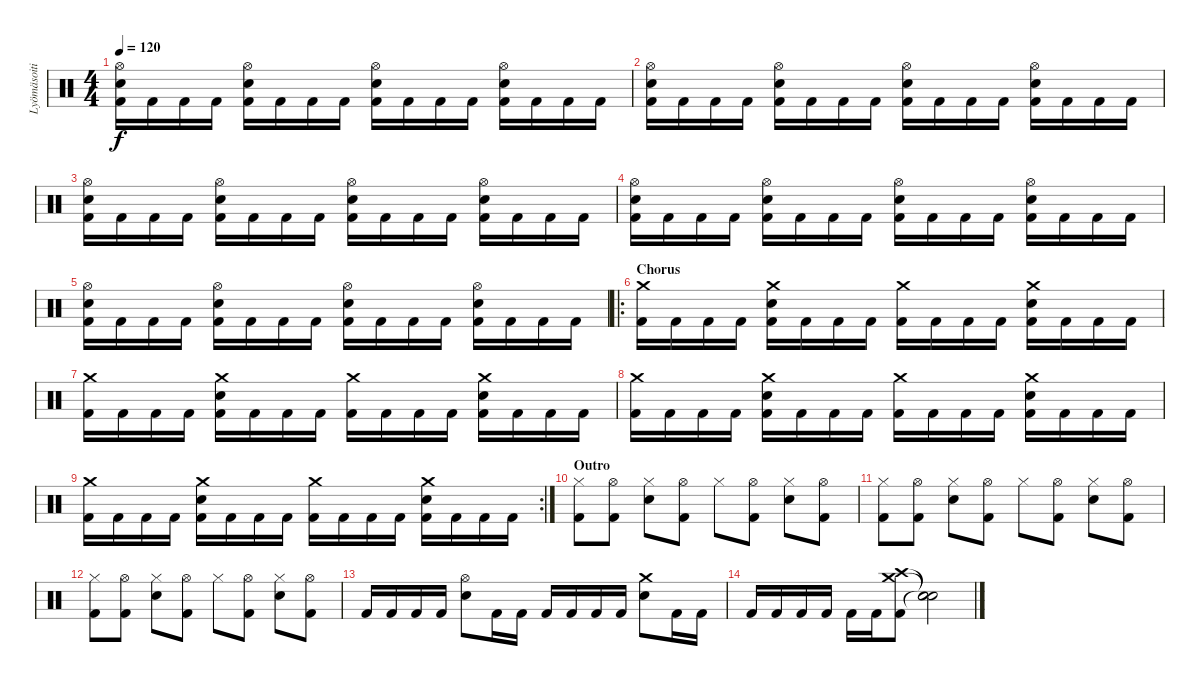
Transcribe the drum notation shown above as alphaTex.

\track ("Lyömäsoitin" "Lyömäsoiti") {instrument percussion}
\staff {score}
\articulation defaults
\ts (4 4)
\tempo 120
\clef neutral
\ks c
("Hi-Hat (open)" "Electric Snare (hit)" "Kick (hit) 2").16{dy f} "Kick (hit) 2".16 "Kick (hit) 2".16 "Kick (hit) 2".16 ("Hi-Hat (open)" "Electric Snare (hit)" "Kick (hit) 2").16 "Kick (hit) 2".16 "Kick (hit) 2".16 "Kick (hit) 2".16 ("Hi-Hat (open)" "Electric Snare (hit)" "Kick (hit) 2").16 "Kick (hit) 2".16 "Kick (hit) 2".16 "Kick (hit) 2".16 ("Hi-Hat (open)" "Electric Snare (hit)" "Kick (hit) 2").16 "Kick (hit) 2".16 "Kick (hit) 2".16 "Kick (hit) 2".16 |
("Hi-Hat (open)" "Electric Snare (hit)" "Kick (hit) 2").16 "Kick (hit) 2".16 "Kick (hit) 2".16 "Kick (hit) 2".16 ("Hi-Hat (open)" "Electric Snare (hit)" "Kick (hit) 2").16 "Kick (hit) 2".16 "Kick (hit) 2".16 "Kick (hit) 2".16 ("Hi-Hat (open)" "Electric Snare (hit)" "Kick (hit) 2").16 "Kick (hit) 2".16 "Kick (hit) 2".16 "Kick (hit) 2".16 ("Hi-Hat (open)" "Electric Snare (hit)" "Kick (hit) 2").16 "Kick (hit) 2".16 "Kick (hit) 2".16 "Kick (hit) 2".16 |
("Hi-Hat (open)" "Electric Snare (hit)" "Kick (hit) 2").16 "Kick (hit) 2".16 "Kick (hit) 2".16 "Kick (hit) 2".16 ("Hi-Hat (open)" "Electric Snare (hit)" "Kick (hit) 2").16 "Kick (hit) 2".16 "Kick (hit) 2".16 "Kick (hit) 2".16 ("Hi-Hat (open)" "Electric Snare (hit)" "Kick (hit) 2").16 "Kick (hit) 2".16 "Kick (hit) 2".16 "Kick (hit) 2".16 ("Hi-Hat (open)" "Electric Snare (hit)" "Kick (hit) 2").16 "Kick (hit) 2".16 "Kick (hit) 2".16 "Kick (hit) 2".16 |
("Hi-Hat (open)" "Electric Snare (hit)" "Kick (hit) 2").16 "Kick (hit) 2".16 "Kick (hit) 2".16 "Kick (hit) 2".16 ("Hi-Hat (open)" "Electric Snare (hit)" "Kick (hit) 2").16 "Kick (hit) 2".16 "Kick (hit) 2".16 "Kick (hit) 2".16 ("Hi-Hat (open)" "Electric Snare (hit)" "Kick (hit) 2").16 "Kick (hit) 2".16 "Kick (hit) 2".16 "Kick (hit) 2".16 ("Hi-Hat (open)" "Electric Snare (hit)" "Kick (hit) 2").16 "Kick (hit) 2".16 "Kick (hit) 2".16 "Kick (hit) 2".16 |
("Hi-Hat (open)" "Electric Snare (hit)" "Kick (hit) 2").16 "Kick (hit) 2".16 "Kick (hit) 2".16 "Kick (hit) 2".16 ("Hi-Hat (open)" "Electric Snare (hit)" "Kick (hit) 2").16 "Kick (hit) 2".16 "Kick (hit) 2".16 "Kick (hit) 2".16 ("Hi-Hat (open)" "Electric Snare (hit)" "Kick (hit) 2").16 "Kick (hit) 2".16 "Kick (hit) 2".16 "Kick (hit) 2".16 ("Hi-Hat (open)" "Electric Snare (hit)" "Kick (hit) 2").16 "Kick (hit) 2".16 "Kick (hit) 2".16 "Kick (hit) 2".16 |
\ro
\section ("" "Chorus")
("Crash medium (hit)" "Kick (hit) 2").16 "Kick (hit) 2".16 "Kick (hit) 2".16 "Kick (hit) 2".16 ("Crash medium (hit)" "Electric Snare (hit)" "Kick (hit) 2").16 "Kick (hit) 2".16 "Kick (hit) 2".16 "Kick (hit) 2".16 ("Crash medium (hit)" "Kick (hit) 2").16 "Kick (hit) 2".16 "Kick (hit) 2".16 "Kick (hit) 2".16 ("Crash medium (hit)" "Electric Snare (hit)" "Kick (hit) 2").16 "Kick (hit) 2".16 "Kick (hit) 2".16 "Kick (hit) 2".16 |
("Crash medium (hit)" "Kick (hit) 2").16 "Kick (hit) 2".16 "Kick (hit) 2".16 "Kick (hit) 2".16 ("Crash medium (hit)" "Electric Snare (hit)" "Kick (hit) 2").16 "Kick (hit) 2".16 "Kick (hit) 2".16 "Kick (hit) 2".16 ("Crash medium (hit)" "Kick (hit) 2").16 "Kick (hit) 2".16 "Kick (hit) 2".16 "Kick (hit) 2".16 ("Crash medium (hit)" "Electric Snare (hit)" "Kick (hit) 2").16 "Kick (hit) 2".16 "Kick (hit) 2".16 "Kick (hit) 2".16 |
("Crash medium (hit)" "Kick (hit) 2").16 "Kick (hit) 2".16 "Kick (hit) 2".16 "Kick (hit) 2".16 ("Crash medium (hit)" "Electric Snare (hit)" "Kick (hit) 2").16 "Kick (hit) 2".16 "Kick (hit) 2".16 "Kick (hit) 2".16 ("Crash medium (hit)" "Kick (hit) 2").16 "Kick (hit) 2".16 "Kick (hit) 2".16 "Kick (hit) 2".16 ("Crash medium (hit)" "Electric Snare (hit)" "Kick (hit) 2").16 "Kick (hit) 2".16 "Kick (hit) 2".16 "Kick (hit) 2".16 |
\rc 2
("Crash medium (hit)" "Kick (hit) 2").16 "Kick (hit) 2".16 "Kick (hit) 2".16 "Kick (hit) 2".16 ("Crash medium (hit)" "Electric Snare (hit)" "Kick (hit) 2").16 "Kick (hit) 2".16 "Kick (hit) 2".16 "Kick (hit) 2".16 ("Crash medium (hit)" "Kick (hit) 2").16 "Kick (hit) 2".16 "Kick (hit) 2".16 "Kick (hit) 2".16 ("Crash medium (hit)" "Electric Snare (hit)" "Kick (hit) 2").16 "Kick (hit) 2".16 "Kick (hit) 2".16 "Kick (hit) 2".16 |
\section ("" "Outro")
("Hi-Hat (closed)" "Kick (hit) 2").8 ("Hi-Hat (open)" "Kick (hit) 2").8 ("Hi-Hat (closed)" "Electric Snare (hit)").8 ("Hi-Hat (open)" "Kick (hit) 2").8 "Hi-Hat (closed)".8 ("Hi-Hat (open)" "Kick (hit) 2").8 ("Hi-Hat (closed)" "Electric Snare (hit)").8 ("Hi-Hat (open)" "Kick (hit) 2").8 |
("Hi-Hat (closed)" "Kick (hit) 2").8 ("Hi-Hat (open)" "Kick (hit) 2").8 ("Hi-Hat (closed)" "Electric Snare (hit)").8 ("Hi-Hat (open)" "Kick (hit) 2").8 "Hi-Hat (closed)".8 ("Hi-Hat (open)" "Kick (hit) 2").8 ("Hi-Hat (closed)" "Electric Snare (hit)").8 ("Hi-Hat (open)" "Kick (hit) 2").8 |
("Hi-Hat (closed)" "Kick (hit) 2").8 ("Hi-Hat (open)" "Kick (hit) 2").8 ("Hi-Hat (closed)" "Electric Snare (hit)").8 ("Hi-Hat (open)" "Kick (hit) 2").8 "Hi-Hat (closed)".8 ("Hi-Hat (open)" "Kick (hit) 2").8 ("Hi-Hat (closed)" "Electric Snare (hit)").8 ("Hi-Hat (open)" "Kick (hit) 2").8 |
"Kick (hit) 2".16 "Kick (hit) 2".16 "Kick (hit) 2".16 "Kick (hit) 2".16 ("Hi-Hat (open)" "Electric Snare (hit)").8 "Kick (hit) 2".16 "Kick (hit) 2".16 "Kick (hit) 2".16 "Kick (hit) 2".16 "Kick (hit) 2".16 "Kick (hit) 2".16 ("Crash medium (hit)" "Electric Snare (hit)").8 "Kick (hit) 2".16 "Kick (hit) 2".16 |
"Kick (hit) 2".16 "Kick (hit) 2".16 "Kick (hit) 2".16 "Kick (hit) 2".16 "Kick (hit) 2".16 "Kick (hit) 2".16 ("Crash medium (hit)" "Crash high (hit)" "Kick (hit) 2").8 ("Snare (hit)"{t} "Snare (hit)"{t} "Snare (hit)"{t}).2
